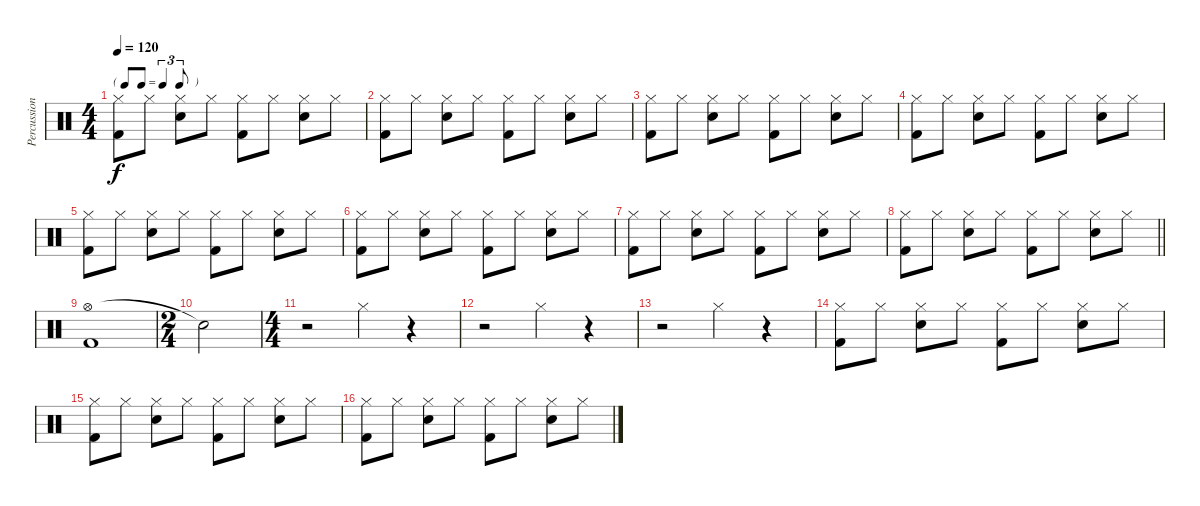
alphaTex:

\track ("Percussion" "Percussion") {instrument percussion}
\staff {score}
\articulation defaults
\ts (4 4)
\tf triplet8th
\tempo 120
\clef neutral
\ks c
("Hi-Hat (closed)" "Kick (hit) 2").8{dy f} "Hi-Hat (closed)".8 ("Hi-Hat (closed)" "Snare (hit) 2").8 "Hi-Hat (closed)".8 ("Hi-Hat (closed)" "Kick (hit) 2").8 "Hi-Hat (closed)".8 ("Hi-Hat (closed)" "Snare (hit) 2").8 "Hi-Hat (closed)".8 |
("Hi-Hat (closed)" "Kick (hit) 2").8 "Hi-Hat (closed)".8 ("Hi-Hat (closed)" "Snare (hit) 2").8 "Hi-Hat (closed)".8 ("Hi-Hat (closed)" "Kick (hit) 2").8 "Hi-Hat (closed)".8 ("Hi-Hat (closed)" "Snare (hit) 2").8 "Hi-Hat (closed)".8 |
("Hi-Hat (closed)" "Kick (hit) 2").8 "Hi-Hat (closed)".8 ("Hi-Hat (closed)" "Snare (hit) 2").8 "Hi-Hat (closed)".8 ("Hi-Hat (closed)" "Kick (hit) 2").8 "Hi-Hat (closed)".8 ("Hi-Hat (closed)" "Snare (hit) 2").8 "Hi-Hat (closed)".8 |
("Hi-Hat (closed)" "Kick (hit) 2").8 "Hi-Hat (closed)".8 ("Hi-Hat (closed)" "Snare (hit) 2").8 "Hi-Hat (closed)".8 ("Hi-Hat (closed)" "Kick (hit) 2").8 "Hi-Hat (closed)".8 ("Hi-Hat (closed)" "Snare (hit) 2").8 "Hi-Hat (closed)".8 |
("Hi-Hat (closed)" "Kick (hit) 2").8 "Hi-Hat (closed)".8 ("Hi-Hat (closed)" "Snare (hit) 2").8 "Hi-Hat (closed)".8 ("Hi-Hat (closed)" "Kick (hit) 2").8 "Hi-Hat (closed)".8 ("Hi-Hat (closed)" "Snare (hit) 2").8 "Hi-Hat (closed)".8 |
("Hi-Hat (closed)" "Kick (hit) 2").8 "Hi-Hat (closed)".8 ("Hi-Hat (closed)" "Snare (hit) 2").8 "Hi-Hat (closed)".8 ("Hi-Hat (closed)" "Kick (hit) 2").8 "Hi-Hat (closed)".8 ("Hi-Hat (closed)" "Snare (hit) 2").8 "Hi-Hat (closed)".8 |
("Hi-Hat (closed)" "Kick (hit) 2").8 "Hi-Hat (closed)".8 ("Hi-Hat (closed)" "Snare (hit) 2").8 "Hi-Hat (closed)".8 ("Hi-Hat (closed)" "Kick (hit) 2").8 "Hi-Hat (closed)".8 ("Hi-Hat (closed)" "Snare (hit) 2").8 "Hi-Hat (closed)".8 |
\barLineRight lightlight
("Hi-Hat (closed)" "Kick (hit) 2").8 "Hi-Hat (closed)".8 ("Hi-Hat (closed)" "Snare (hit) 2").8 "Hi-Hat (closed)".8 ("Hi-Hat (closed)" "Kick (hit) 2").8 "Hi-Hat (closed)".8 ("Hi-Hat (closed)" "Snare (hit) 2").8 "Hi-Hat (closed)".8 |
("Hi-Hat (open)" "Kick (hit) 2").1 |
\ts (2 4)
"Snare (hit)"{t}.2 |
\ts (4 4)
r.2 "Hi-Hat (closed)".4 r.4 |
r.2 "Hi-Hat (closed)".4 r.4 |
r.2 "Hi-Hat (closed)".4 r.4 |
("Hi-Hat (closed)" "Kick (hit) 2").8 "Hi-Hat (closed)".8 ("Hi-Hat (closed)" "Snare (hit) 2").8 "Hi-Hat (closed)".8 ("Hi-Hat (closed)" "Kick (hit) 2").8 "Hi-Hat (closed)".8 ("Hi-Hat (closed)" "Snare (hit) 2").8 "Hi-Hat (closed)".8 |
("Hi-Hat (closed)" "Kick (hit) 2").8 "Hi-Hat (closed)".8 ("Hi-Hat (closed)" "Snare (hit) 2").8 "Hi-Hat (closed)".8 ("Hi-Hat (closed)" "Kick (hit) 2").8 "Hi-Hat (closed)".8 ("Hi-Hat (closed)" "Snare (hit) 2").8 "Hi-Hat (closed)".8 |
("Hi-Hat (closed)" "Kick (hit) 2").8 "Hi-Hat (closed)".8 ("Hi-Hat (closed)" "Snare (hit) 2").8 "Hi-Hat (closed)".8 ("Hi-Hat (closed)" "Kick (hit) 2").8 "Hi-Hat (closed)".8 ("Hi-Hat (closed)" "Snare (hit) 2").8 "Hi-Hat (closed)".8
